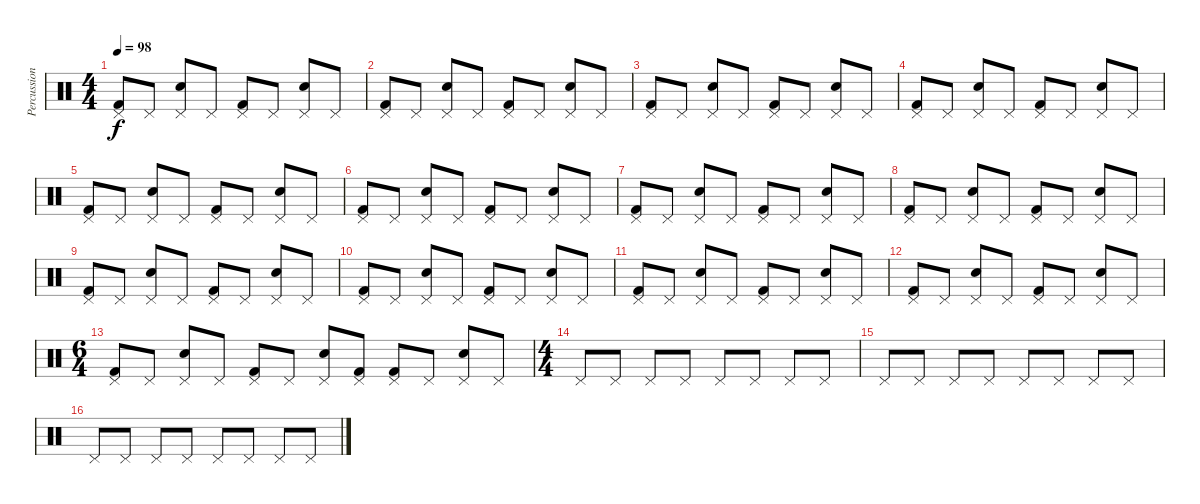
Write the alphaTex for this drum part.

\track ("Percussions" "Percussion") {instrument percussion}
\staff {score}
\articulation defaults
\ts (4 4)
\tempo 98
\clef neutral
\ks c
("Pedal Hi-Hat (hit)" "Kick (hit) 2").8{dy f} "Pedal Hi-Hat (hit)".8 ("Pedal Hi-Hat (hit)" "Electric Snare (hit)").8 "Pedal Hi-Hat (hit)".8 ("Pedal Hi-Hat (hit)" "Kick (hit) 2").8 "Pedal Hi-Hat (hit)".8 ("Pedal Hi-Hat (hit)" "Electric Snare (hit)").8 "Pedal Hi-Hat (hit)".8 |
("Pedal Hi-Hat (hit)" "Kick (hit) 2").8 "Pedal Hi-Hat (hit)".8 ("Pedal Hi-Hat (hit)" "Electric Snare (hit)").8 "Pedal Hi-Hat (hit)".8 ("Pedal Hi-Hat (hit)" "Kick (hit) 2").8 "Pedal Hi-Hat (hit)".8 ("Pedal Hi-Hat (hit)" "Electric Snare (hit)").8 "Pedal Hi-Hat (hit)".8 |
("Pedal Hi-Hat (hit)" "Kick (hit) 2").8 "Pedal Hi-Hat (hit)".8 ("Pedal Hi-Hat (hit)" "Electric Snare (hit)").8 "Pedal Hi-Hat (hit)".8 ("Pedal Hi-Hat (hit)" "Kick (hit) 2").8 "Pedal Hi-Hat (hit)".8 ("Pedal Hi-Hat (hit)" "Electric Snare (hit)").8 "Pedal Hi-Hat (hit)".8 |
("Pedal Hi-Hat (hit)" "Kick (hit) 2").8 "Pedal Hi-Hat (hit)".8 ("Pedal Hi-Hat (hit)" "Electric Snare (hit)").8 "Pedal Hi-Hat (hit)".8 ("Pedal Hi-Hat (hit)" "Kick (hit) 2").8 "Pedal Hi-Hat (hit)".8 ("Pedal Hi-Hat (hit)" "Electric Snare (hit)").8 "Pedal Hi-Hat (hit)".8 |
("Pedal Hi-Hat (hit)" "Kick (hit) 2").8 "Pedal Hi-Hat (hit)".8 ("Pedal Hi-Hat (hit)" "Electric Snare (hit)").8 "Pedal Hi-Hat (hit)".8 ("Pedal Hi-Hat (hit)" "Kick (hit) 2").8 "Pedal Hi-Hat (hit)".8 ("Pedal Hi-Hat (hit)" "Electric Snare (hit)").8 "Pedal Hi-Hat (hit)".8 |
("Pedal Hi-Hat (hit)" "Kick (hit) 2").8 "Pedal Hi-Hat (hit)".8 ("Pedal Hi-Hat (hit)" "Electric Snare (hit)").8 "Pedal Hi-Hat (hit)".8 ("Pedal Hi-Hat (hit)" "Kick (hit) 2").8 "Pedal Hi-Hat (hit)".8 ("Pedal Hi-Hat (hit)" "Electric Snare (hit)").8 "Pedal Hi-Hat (hit)".8 |
("Pedal Hi-Hat (hit)" "Kick (hit) 2").8 "Pedal Hi-Hat (hit)".8 ("Pedal Hi-Hat (hit)" "Electric Snare (hit)").8 "Pedal Hi-Hat (hit)".8 ("Pedal Hi-Hat (hit)" "Kick (hit) 2").8 "Pedal Hi-Hat (hit)".8 ("Pedal Hi-Hat (hit)" "Electric Snare (hit)").8 "Pedal Hi-Hat (hit)".8 |
("Pedal Hi-Hat (hit)" "Kick (hit) 2").8 "Pedal Hi-Hat (hit)".8 ("Pedal Hi-Hat (hit)" "Electric Snare (hit)").8 "Pedal Hi-Hat (hit)".8 ("Pedal Hi-Hat (hit)" "Kick (hit) 2").8 "Pedal Hi-Hat (hit)".8 ("Pedal Hi-Hat (hit)" "Electric Snare (hit)").8 "Pedal Hi-Hat (hit)".8 |
("Pedal Hi-Hat (hit)" "Kick (hit) 2").8 "Pedal Hi-Hat (hit)".8 ("Pedal Hi-Hat (hit)" "Electric Snare (hit)").8 "Pedal Hi-Hat (hit)".8 ("Pedal Hi-Hat (hit)" "Kick (hit) 2").8 "Pedal Hi-Hat (hit)".8 ("Pedal Hi-Hat (hit)" "Electric Snare (hit)").8 "Pedal Hi-Hat (hit)".8 |
("Pedal Hi-Hat (hit)" "Kick (hit) 2").8 "Pedal Hi-Hat (hit)".8 ("Pedal Hi-Hat (hit)" "Electric Snare (hit)").8 "Pedal Hi-Hat (hit)".8 ("Pedal Hi-Hat (hit)" "Kick (hit) 2").8 "Pedal Hi-Hat (hit)".8 ("Pedal Hi-Hat (hit)" "Electric Snare (hit)").8 "Pedal Hi-Hat (hit)".8 |
("Pedal Hi-Hat (hit)" "Kick (hit) 2").8 "Pedal Hi-Hat (hit)".8 ("Pedal Hi-Hat (hit)" "Electric Snare (hit)").8 "Pedal Hi-Hat (hit)".8 ("Pedal Hi-Hat (hit)" "Kick (hit) 2").8 "Pedal Hi-Hat (hit)".8 ("Pedal Hi-Hat (hit)" "Electric Snare (hit)").8 "Pedal Hi-Hat (hit)".8 |
("Pedal Hi-Hat (hit)" "Kick (hit) 2").8 "Pedal Hi-Hat (hit)".8 ("Pedal Hi-Hat (hit)" "Electric Snare (hit)").8 "Pedal Hi-Hat (hit)".8 ("Pedal Hi-Hat (hit)" "Kick (hit) 2").8 "Pedal Hi-Hat (hit)".8 ("Pedal Hi-Hat (hit)" "Electric Snare (hit)").8 "Pedal Hi-Hat (hit)".8 |
\ts (6 4)
("Pedal Hi-Hat (hit)" "Kick (hit) 2").8 "Pedal Hi-Hat (hit)".8 ("Pedal Hi-Hat (hit)" "Electric Snare (hit)").8 "Pedal Hi-Hat (hit)".8 ("Pedal Hi-Hat (hit)" "Kick (hit) 2").8 "Pedal Hi-Hat (hit)".8 ("Pedal Hi-Hat (hit)" "Electric Snare (hit)").8 ("Pedal Hi-Hat (hit)" "Kick (hit) 2").8 ("Pedal Hi-Hat (hit)" "Kick (hit) 2").8 "Pedal Hi-Hat (hit)".8 ("Pedal Hi-Hat (hit)" "Electric Snare (hit)").8 "Pedal Hi-Hat (hit)".8 |
\ts (4 4)
"Pedal Hi-Hat (hit)".8 "Pedal Hi-Hat (hit)".8 "Pedal Hi-Hat (hit)".8 "Pedal Hi-Hat (hit)".8 "Pedal Hi-Hat (hit)".8 "Pedal Hi-Hat (hit)".8 "Pedal Hi-Hat (hit)".8 "Pedal Hi-Hat (hit)".8 |
"Pedal Hi-Hat (hit)".8 "Pedal Hi-Hat (hit)".8 "Pedal Hi-Hat (hit)".8 "Pedal Hi-Hat (hit)".8 "Pedal Hi-Hat (hit)".8 "Pedal Hi-Hat (hit)".8 "Pedal Hi-Hat (hit)".8 "Pedal Hi-Hat (hit)".8 |
"Pedal Hi-Hat (hit)".8 "Pedal Hi-Hat (hit)".8 "Pedal Hi-Hat (hit)".8 "Pedal Hi-Hat (hit)".8 "Pedal Hi-Hat (hit)".8 "Pedal Hi-Hat (hit)".8 "Pedal Hi-Hat (hit)".8 "Pedal Hi-Hat (hit)".8
